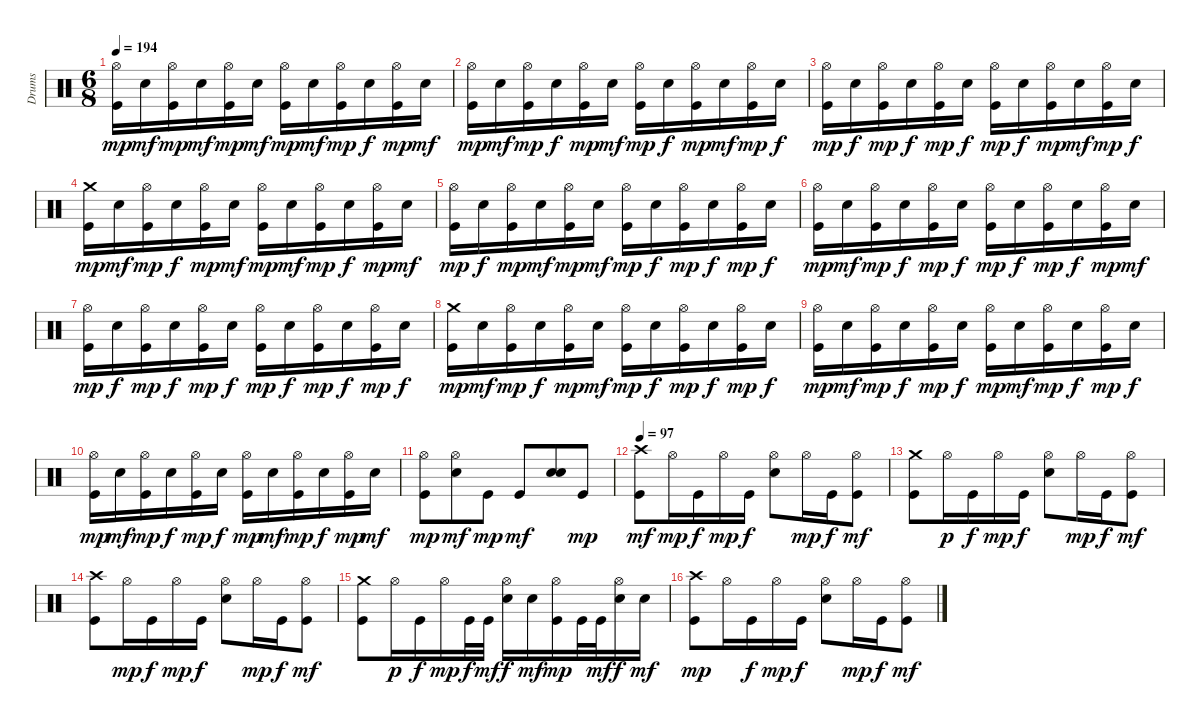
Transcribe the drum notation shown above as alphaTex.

\track ("Drums" "Drums") {instrument percussion}
\staff {score}
\articulation defaults
\ts (6 8)
\tempo 194
\clef neutral
\ks c
("Hi-Hat (open)" "Kick (hit)").16{dy mp} "Snare (hit) 2".16{dy mf} ("Hi-Hat (open)" "Kick (hit)").16{dy mp} "Snare (hit) 2".16{dy mf} ("Hi-Hat (open)" "Kick (hit)").16{dy mp} "Snare (hit) 2".16{dy mf} ("Hi-Hat (open)" "Kick (hit)").16{dy mp} "Snare (hit) 2".16{dy mf} ("Hi-Hat (open)" "Kick (hit)").16{dy mp} "Snare (hit) 2".16{dy f} ("Hi-Hat (open)" "Kick (hit)").16{dy mp} "Snare (hit) 2".16{dy mf} |
("Hi-Hat (open)" "Kick (hit)").16{dy mp} "Snare (hit) 2".16{dy mf} ("Hi-Hat (open)" "Kick (hit)").16{dy mp} "Snare (hit) 2".16{dy f} ("Hi-Hat (open)" "Kick (hit)").16{dy mp} "Snare (hit) 2".16{dy mf} ("Hi-Hat (open)" "Kick (hit)").16{dy mp} "Snare (hit) 2".16{dy f} ("Hi-Hat (open)" "Kick (hit)").16{dy mp} "Snare (hit) 2".16{dy mf} ("Hi-Hat (open)" "Kick (hit)").16{dy mp} "Snare (hit) 2".16{dy f} |
("Hi-Hat (open)" "Kick (hit)").16{dy mp} "Snare (hit) 2".16{dy f} ("Hi-Hat (open)" "Kick (hit)").16{dy mp} "Snare (hit) 2".16{dy f} ("Hi-Hat (open)" "Kick (hit)").16{dy mp} "Snare (hit) 2".16{dy f} ("Hi-Hat (open)" "Kick (hit)").16{dy mp} "Snare (hit) 2".16{dy f} ("Hi-Hat (open)" "Kick (hit)").16{dy mp} "Snare (hit) 2".16{dy mf} ("Hi-Hat (open)" "Kick (hit)").16{dy mp} "Snare (hit) 2".16{dy f} |
("Crash medium (hit)" "Kick (hit)").16{dy mp} "Snare (hit) 2".16{dy mf} ("Hi-Hat (open)" "Kick (hit)").16{dy mp} "Snare (hit) 2".16{dy f} ("Hi-Hat (open)" "Kick (hit)").16{dy mp} "Snare (hit) 2".16{dy mf} ("Hi-Hat (open)" "Kick (hit)").16{dy mp} "Snare (hit) 2".16{dy mf} ("Hi-Hat (open)" "Kick (hit)").16{dy mp} "Snare (hit) 2".16{dy f} ("Hi-Hat (open)" "Kick (hit)").16{dy mp} "Snare (hit) 2".16{dy mf} |
("Hi-Hat (open)" "Kick (hit)").16{dy mp} "Snare (hit) 2".16{dy f} ("Hi-Hat (open)" "Kick (hit)").16{dy mp} "Snare (hit) 2".16{dy mf} ("Hi-Hat (open)" "Kick (hit)").16{dy mp} "Snare (hit) 2".16{dy mf} ("Hi-Hat (open)" "Kick (hit)").16{dy mp} "Snare (hit) 2".16{dy f} ("Hi-Hat (open)" "Kick (hit)").16{dy mp} "Snare (hit) 2".16{dy f} ("Hi-Hat (open)" "Kick (hit)").16{dy mp} "Snare (hit) 2".16{dy f} |
("Hi-Hat (open)" "Kick (hit)").16{dy mp} "Snare (hit) 2".16{dy mf} ("Hi-Hat (open)" "Kick (hit)").16{dy mp} "Snare (hit) 2".16{dy f} ("Hi-Hat (open)" "Kick (hit)").16{dy mp} "Snare (hit) 2".16{dy f} ("Hi-Hat (open)" "Kick (hit)").16{dy mp} "Snare (hit) 2".16{dy f} ("Hi-Hat (open)" "Kick (hit)").16{dy mp} "Snare (hit) 2".16{dy f} ("Hi-Hat (open)" "Kick (hit)").16{dy mp} "Snare (hit) 2".16{dy mf} |
("Hi-Hat (open)" "Kick (hit)").16{dy mp} "Snare (hit) 2".16{dy f} ("Hi-Hat (open)" "Kick (hit)").16{dy mp} "Snare (hit) 2".16{dy f} ("Hi-Hat (open)" "Kick (hit)").16{dy mp} "Snare (hit) 2".16{dy f} ("Hi-Hat (open)" "Kick (hit)").16{dy mp} "Snare (hit) 2".16{dy f} ("Hi-Hat (open)" "Kick (hit)").16{dy mp} "Snare (hit) 2".16{dy f} ("Hi-Hat (open)" "Kick (hit)").16{dy mp} "Snare (hit) 2".16{dy f} |
("Crash medium (hit)" "Kick (hit)").16{dy mp} "Snare (hit) 2".16{dy mf} ("Hi-Hat (open)" "Kick (hit)").16{dy mp} "Snare (hit) 2".16{dy f} ("Hi-Hat (open)" "Kick (hit)").16{dy mp} "Snare (hit) 2".16{dy mf} ("Hi-Hat (open)" "Kick (hit)").16{dy mp} "Snare (hit) 2".16{dy f} ("Hi-Hat (open)" "Kick (hit)").16{dy mp} "Snare (hit) 2".16{dy f} ("Hi-Hat (open)" "Kick (hit)").16{dy mp} "Snare (hit) 2".16{dy f} |
("Hi-Hat (open)" "Kick (hit)").16{dy mp} "Snare (hit) 2".16{dy mf} ("Hi-Hat (open)" "Kick (hit)").16{dy mp} "Snare (hit) 2".16{dy f} ("Hi-Hat (open)" "Kick (hit)").16{dy mp} "Snare (hit) 2".16{dy f} ("Hi-Hat (open)" "Kick (hit)").16{dy mp} "Snare (hit) 2".16{dy mf} ("Hi-Hat (open)" "Kick (hit)").16{dy mp} "Snare (hit) 2".16{dy f} ("Hi-Hat (open)" "Kick (hit)").16{dy mp} "Snare (hit) 2".16{dy f} |
("Hi-Hat (open)" "Kick (hit)").16{dy mp} "Snare (hit) 2".16{dy mf} ("Hi-Hat (open)" "Kick (hit)").16{dy mp} "Snare (hit) 2".16{dy f} ("Hi-Hat (open)" "Kick (hit)").16{dy mp} "Snare (hit) 2".16{dy f} ("Hi-Hat (open)" "Kick (hit)").16{dy mp} "Snare (hit) 2".16{dy mf} ("Hi-Hat (open)" "Kick (hit)").16{dy mp} "Snare (hit) 2".16{dy f} ("Hi-Hat (open)" "Kick (hit)").16{dy mp} "Snare (hit) 2".16{dy mf} |
("Hi-Hat (open)" "Kick (hit)").8{dy mp} ("Hi-Hat (open)" "Snare (hit) 2").8{dy mf} "Kick (hit)".8{dy mp} "Kick (hit)".8{dy mf} ("Snare (hit) 2" "Snare (hit) 2").8 "Kick (hit)".8{dy mp} |
\tempo 97
("Crash high (hit)" "Kick (hit)").8{dy mf} "Hi-Hat (open)".16{dy mp} "Kick (hit)".16{dy f} "Hi-Hat (open)".16{dy mp} "Kick (hit)".16{dy f} ("Hi-Hat (open)" "Snare (hit) 2").8 "Hi-Hat (open)".16{dy mp} "Kick (hit)".16{dy f} ("Hi-Hat (open)" "Kick (hit)").8{dy mf} |
("Crash medium (hit)" "Kick (hit)").8 "Hi-Hat (open)".16{dy p} "Kick (hit)".16{dy f} "Hi-Hat (open)".16{dy mp} "Kick (hit)".16{dy f} ("Hi-Hat (open)" "Snare (hit) 2").8 "Hi-Hat (open)".16{dy mp} "Kick (hit)".16{dy f} ("Hi-Hat (open)" "Kick (hit)").8{dy mf} |
("Crash high (hit)" "Kick (hit)").8 "Hi-Hat (open)".16{dy mp} "Kick (hit)".16{dy f} "Hi-Hat (open)".16{dy mp} "Kick (hit)".16{dy f} ("Hi-Hat (open)" "Snare (hit) 2").8 "Hi-Hat (open)".16{dy mp} "Kick (hit)".16{dy f} ("Hi-Hat (open)" "Kick (hit)").8{dy mf} |
("Crash medium (hit)" "Kick (hit)").8 "Hi-Hat (open)".16{dy p} "Kick (hit)".16{dy f} "Hi-Hat (open)".16{dy mp} "Kick (hit)".32{dy f} "Kick (hit)".32{dy mf} ("Hi-Hat (open)" "Snare (hit) 2").16{dy f} "Snare (hit) 2".16{dy mf} ("Hi-Hat (open)" "Kick (hit)").16{dy mp} "Kick (hit)".32 "Kick (hit)".32{dy mf} ("Hi-Hat (open)" "Snare (hit) 2").16{dy f} "Snare (hit) 2".16{dy mf} |
("Crash high (hit)" "Kick (hit)").8{dy mp} "Hi-Hat (open)".16 "Kick (hit)".16{dy f} "Hi-Hat (open)".16{dy mp} "Kick (hit)".16{dy f} ("Hi-Hat (open)" "Snare (hit) 2").8 "Hi-Hat (open)".16{dy mp} "Kick (hit)".16{dy f} ("Hi-Hat (open)" "Kick (hit)").8{dy mf}
